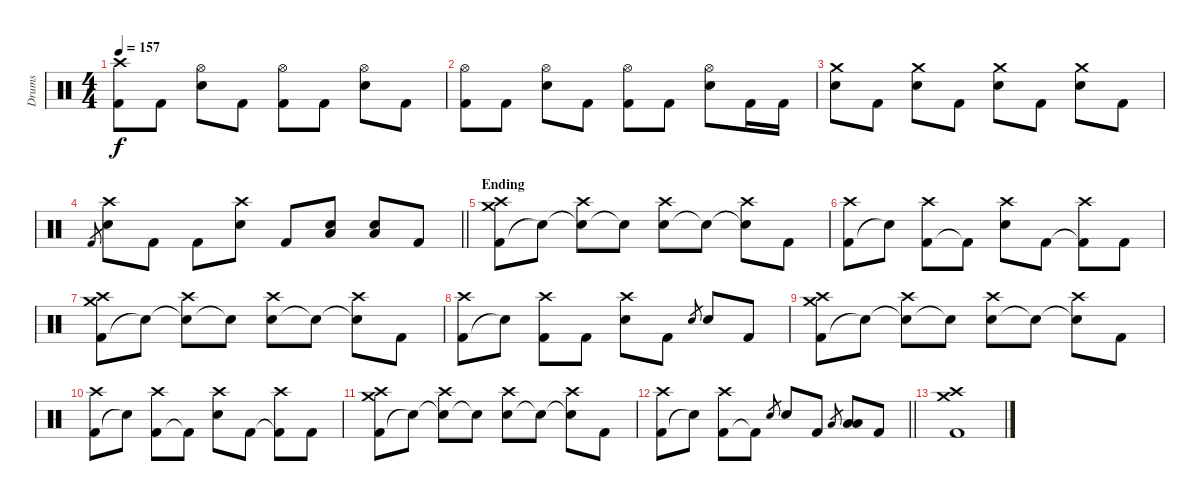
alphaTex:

\track ("Drums" "Drums") {instrument percussion}
\staff {score}
\articulation defaults
\ts (4 4)
\tempo 157
\clef neutral
\ks c
("Kick (hit) 2" "Crash high (hit)").8{dy f} "Kick (hit) 2".8 ("Electric Snare (hit)" "Hi-Hat (open)").8 "Kick (hit) 2".8 ("Kick (hit) 2" "Hi-Hat (open)").8 "Kick (hit) 2".8 ("Electric Snare (hit)" "Hi-Hat (open)").8 "Kick (hit) 2".8 |
("Kick (hit) 2" "Hi-Hat (open)").8 "Kick (hit) 2".8 ("Electric Snare (hit)" "Hi-Hat (open)").8 "Kick (hit) 2".8 ("Kick (hit) 2" "Hi-Hat (open)").8 "Kick (hit) 2".8 ("Electric Snare (hit)" "Hi-Hat (open)").8 "Kick (hit) 2".16 "Kick (hit) 2".16 |
("Electric Snare (hit)" "Crash medium (hit)").8 "Kick (hit) 2".8 ("Electric Snare (hit)" "Crash medium (hit)").8 "Kick (hit) 2".8 ("Electric Snare (hit)" "Crash medium (hit)").8 "Kick (hit) 2".8 ("Electric Snare (hit)" "Crash medium (hit)").8 "Kick (hit) 2".8 |
\barLineRight lightlight "Kick (hit) 2".8{gr}
("Electric Snare (hit)" "Crash high (hit)").8 "Kick (hit) 2".8 "Kick (hit) 2".8 ("Electric Snare (hit)" "Crash high (hit)").8 "Kick (hit) 2".8 ("Electric Snare (hit)" "Low Floor Tom (hit)").8 ("Electric Snare (hit)" "Low Floor Tom (hit)").8 "Kick (hit) 2".8 |
\section ("" "Ending")
("Kick (hit) 2" "Crash medium (hit)" "Crash high (hit)").8 "Snare (hit)"{t}.8 ("Snare (hit)"{t} "Crash high (hit)").8 "Electric Snare (hit)"{t}.8 ("Electric Snare (hit)" "Crash high (hit)").8 "Snare (hit)"{t}.8 ("Snare (hit)"{t} "Crash high (hit)").8 "Kick (hit) 2".8 |
("Kick (hit) 2" "Crash high (hit)").8 "Snare (hit)"{t}.8 ("Kick (hit) 2" "Crash high (hit)").8 "Kick (hit) 2"{t}.8 ("Electric Snare (hit)" "Crash high (hit)").8 "Kick (hit) 2".8 ("Kick (hit) 2"{t} "Crash high (hit)").8 "Kick (hit) 2".8 |
("Kick (hit) 2" "Crash medium (hit)" "Crash high (hit)").8 "Snare (hit)"{t}.8 ("Snare (hit)"{t} "Crash high (hit)").8 "Electric Snare (hit)"{t}.8 ("Electric Snare (hit)" "Crash high (hit)").8 "Snare (hit)"{t}.8 ("Snare (hit)"{t} "Crash high (hit)").8 "Kick (hit) 2".8 |
("Kick (hit) 2" "Crash high (hit)").8 "Snare (hit)"{t}.8 ("Kick (hit) 2" "Crash high (hit)").8 "Kick (hit) 2".8 ("Electric Snare (hit)" "Crash high (hit)").8 "Kick (hit) 2".8 "Electric Snare (hit)".8{gr} "Electric Snare (hit)".8 "Kick (hit) 2".8 |
("Kick (hit) 2" "Crash medium (hit)" "Crash high (hit)").8 "Snare (hit)"{t}.8 ("Snare (hit)"{t} "Crash high (hit)").8 "Electric Snare (hit)"{t}.8 ("Electric Snare (hit)" "Crash high (hit)").8 "Snare (hit)"{t}.8 ("Snare (hit)"{t} "Crash high (hit)").8 "Kick (hit) 2".8 |
("Kick (hit) 2" "Crash high (hit)").8 "Snare (hit)"{t}.8 ("Kick (hit) 2" "Crash high (hit)").8 "Kick (hit) 2"{t}.8 ("Electric Snare (hit)" "Crash high (hit)").8 "Kick (hit) 2".8 ("Kick (hit) 2"{t} "Crash high (hit)").8 "Kick (hit) 2".8 |
("Kick (hit) 2" "Crash medium (hit)" "Crash high (hit)").8 "Snare (hit)"{t}.8 ("Snare (hit)"{t} "Crash high (hit)").8 "Electric Snare (hit)"{t}.8 ("Electric Snare (hit)" "Crash high (hit)").8 "Snare (hit)"{t}.8 ("Snare (hit)"{t} "Crash high (hit)").8 "Kick (hit) 2".8 |
\barLineRight lightlight
("Kick (hit) 2" "Crash high (hit)").8 "Snare (hit)"{t}.8 ("Kick (hit) 2" "Crash high (hit)").8 "Kick (hit) 2"{t}.8 "Electric Snare (hit)".8{gr} "Electric Snare (hit)".8 "Kick (hit) 2".8 "Low Tom (hit)".8{gr} ("Low Tom (hit)" "Low Floor Tom (hit)").8 "Kick (hit) 2".8 |
("Kick (hit) 2" "Crash medium (hit)" "Crash high (hit)").1
